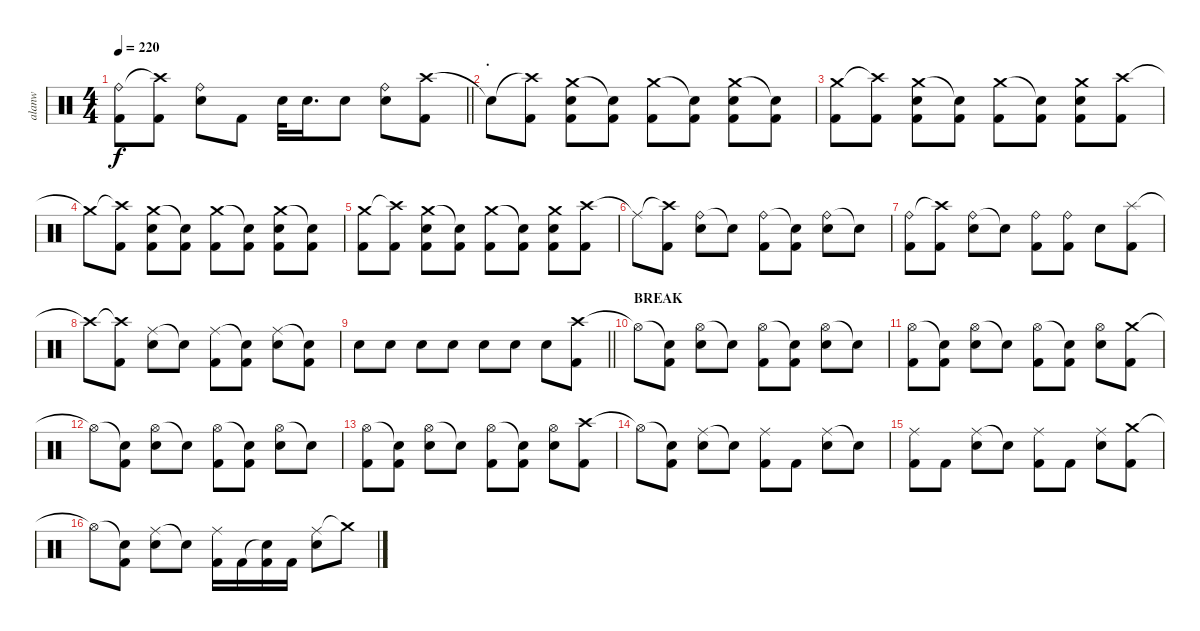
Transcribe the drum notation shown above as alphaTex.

\track ("alanw" "alanw") {instrument percussion}
\staff {score}
\articulation defaults
\ts (4 4)
\tempo 220
\clef neutral
\barLineRight lightlight
\ks c
("Ride (bell)" "Kick (hit) 2").8{dy f} ("Crash high (hit)"{t} "Kick (hit) 2").8 ("Ride (bell)" "Electric Snare (hit)").8 "Kick (hit) 2".8 "Electric Snare (hit)".32 "Electric Snare (hit)".16{d} "Electric Snare (hit)".8 ("Ride (bell)" "Electric Snare (hit)").8 ("Crash high (hit)" "Kick (hit) 2").8 |
\section ("" ".")
"Snare (hit)"{t}.8 ("Crash high (hit)"{t} "Kick (hit) 2").8 ("Crash medium (hit)" "Electric Snare (hit)" "Kick (hit) 2").8 ("Snare (hit)"{t} "Kick (hit) 2").8 ("Crash medium (hit)" "Kick (hit) 2").8 ("Snare (hit)"{t} "Kick (hit) 2").8 ("Crash medium (hit)" "Electric Snare (hit)" "Kick (hit) 2").8 ("Snare (hit)"{t} "Kick (hit) 2").8 |
("Crash medium (hit)" "Kick (hit) 2").8 ("Crash high (hit)"{t} "Kick (hit) 2").8 ("Crash medium (hit)" "Electric Snare (hit)" "Kick (hit) 2").8 ("Snare (hit)"{t} "Kick (hit) 2").8 ("Crash medium (hit)" "Kick (hit) 2").8 ("Snare (hit)"{t} "Kick (hit) 2").8 ("Crash medium (hit)" "Electric Snare (hit)" "Kick (hit) 2").8 ("Crash high (hit)" "Kick (hit) 2").8 |
"Crash medium (hit)"{t}.8 ("Crash high (hit)"{t} "Kick (hit) 2").8 ("Crash medium (hit)" "Electric Snare (hit)" "Kick (hit) 2").8 ("Snare (hit)"{t} "Kick (hit) 2").8 ("Crash medium (hit)" "Kick (hit) 2").8 ("Snare (hit)"{t} "Kick (hit) 2").8 ("Crash medium (hit)" "Electric Snare (hit)" "Kick (hit) 2").8 ("Snare (hit)"{t} "Kick (hit) 2").8 |
("Crash medium (hit)" "Kick (hit) 2").8 ("Crash high (hit)"{t} "Kick (hit) 2").8 ("Crash medium (hit)" "Electric Snare (hit)" "Kick (hit) 2").8 ("Snare (hit)"{t} "Kick (hit) 2").8 ("Crash medium (hit)" "Kick (hit) 2").8 ("Snare (hit)"{t} "Kick (hit) 2").8 ("Crash medium (hit)" "Electric Snare (hit)" "Kick (hit) 2").8 ("Crash high (hit)" "Kick (hit) 2").8 |
"Ride (middle)"{t}.8 ("Crash high (hit)"{t} "Kick (hit) 2").8 ("Ride (bell)" "Electric Snare (hit)").8 "Snare (hit)"{t}.8 ("Ride (bell)" "Kick (hit) 2").8 ("Snare (hit)"{t} "Kick (hit) 2").8 ("Ride (bell)" "Electric Snare (hit)").8 "Snare (hit)"{t}.8 |
("Ride (bell)" "Kick (hit) 2").8 ("Crash high (hit)"{t} "Kick (hit) 2").8 ("Ride (bell)" "Electric Snare (hit)").8 "Snare (hit)"{t}.8 ("Ride (bell)" "Kick (hit) 2").8 ("Ride (bell)" "Kick (hit) 2").8 "Electric Snare (hit)".8 ("Splash (hit)" "Kick (hit) 2").8 |
"Crash high (hit)"{t}.8 ("Crash high (hit)"{t} "Kick (hit) 2").8 ("Ride (middle)" "Electric Snare (hit)").8 "Snare (hit)"{t}.8 ("Ride (middle)" "Kick (hit) 2").8 ("Snare (hit)"{t} "Kick (hit) 2").8 ("Ride (middle)" "Electric Snare (hit)").8 ("Snare (hit)"{t} "Kick (hit) 2").8 |
\barLineRight lightlight "Electric Snare (hit)".8 "Electric Snare (hit)".8 "Electric Snare (hit)".8 "Electric Snare (hit)".8 "Electric Snare (hit)".8 "Electric Snare (hit)".8 "Electric Snare (hit)".8
("Crash high (hit)" "Kick (hit) 2").8 |
\section ("" "BREAK")
"Hi-Hat (open)"{t}.8 ("Snare (hit)"{t} "Kick (hit) 2").8 ("Hi-Hat (open)" "Electric Snare (hit)").8 "Snare (hit)"{t}.8 ("Hi-Hat (open)" "Kick (hit) 2").8 ("Snare (hit)"{t} "Kick (hit) 2").8 ("Hi-Hat (open)" "Electric Snare (hit)").8 "Snare (hit)"{t}.8 |
("Hi-Hat (open)" "Kick (hit) 2").8 ("Snare (hit)"{t} "Kick (hit) 2").8 ("Hi-Hat (open)" "Electric Snare (hit)").8 "Snare (hit)"{t}.8 ("Hi-Hat (open)" "Kick (hit) 2").8 ("Snare (hit)"{t} "Kick (hit) 2").8 ("Hi-Hat (open)" "Electric Snare (hit)").8 ("Crash medium (hit)" "Kick (hit) 2").8 |
"Hi-Hat (open)"{t}.8 ("Snare (hit)"{t} "Kick (hit) 2").8 ("Hi-Hat (open)" "Electric Snare (hit)").8 "Snare (hit)"{t}.8 ("Hi-Hat (open)" "Kick (hit) 2").8 ("Snare (hit)"{t} "Kick (hit) 2").8 ("Hi-Hat (open)" "Electric Snare (hit)").8 "Snare (hit)"{t}.8 |
("Hi-Hat (open)" "Kick (hit) 2").8 ("Snare (hit)"{t} "Kick (hit) 2").8 ("Hi-Hat (open)" "Electric Snare (hit)").8 "Snare (hit)"{t}.8 ("Hi-Hat (open)" "Kick (hit) 2").8 ("Snare (hit)"{t} "Kick (hit) 2").8 ("Hi-Hat (open)" "Electric Snare (hit)").8 ("Crash high (hit)" "Kick (hit) 2").8 |
"Hi-Hat (open)"{t}.8 ("Snare (hit)"{t} "Kick (hit) 2").8 ("Ride (middle)" "Electric Snare (hit)").8 "Snare (hit)"{t}.8 ("Ride (middle)" "Kick (hit) 2").8 "Kick (hit) 2".8 ("Ride (middle)" "Electric Snare (hit)").8 "Snare (hit)"{t}.8 |
("Ride (middle)" "Kick (hit) 2").8 "Kick (hit) 2".8 ("Ride (middle)" "Electric Snare (hit)").8 "Snare (hit)"{t}.8 ("Ride (middle)" "Kick (hit) 2").8 "Kick (hit) 2".8 ("Ride (middle)" "Electric Snare (hit)").8 ("Crash medium (hit)" "Kick (hit) 2").8 |
"Hi-Hat (open)"{t}.8 ("Snare (hit)"{t} "Kick (hit) 2").8 ("Ride (middle)" "Electric Snare (hit)").8 "Snare (hit)"{t}.8 ("Ride (middle)" "Kick (hit) 2").16 "Kick (hit) 2".16 ("Snare (hit)"{t} "Kick (hit) 2").16 "Kick (hit) 2".16 ("Ride (middle)" "Electric Snare (hit)").8 "Crash medium (hit)"{t}.8
